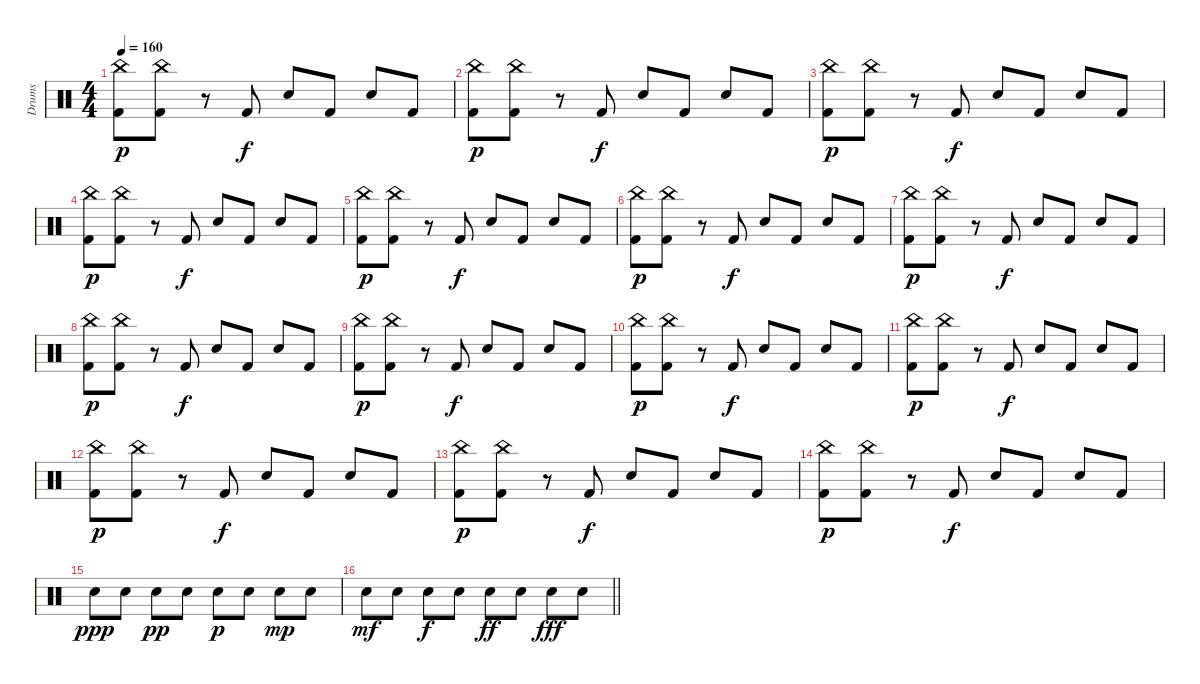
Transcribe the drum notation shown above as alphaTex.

\track ("Drums" "Drums") {instrument percussion}
\staff {score}
\articulation defaults
\ts (4 4)
\tempo 160
\clef neutral
\ks c
("China (hit)" "Kick (hit) 2").8{dy p} ("China (hit)" "Kick (hit) 2").8 r.8 "Kick (hit) 2".8{dy f} "Snare (hit) 2".8 "Kick (hit) 2".8 "Snare (hit) 2".8 "Kick (hit) 2".8 |
("China (hit)" "Kick (hit) 2").8{dy p} ("China (hit)" "Kick (hit) 2").8 r.8 "Kick (hit) 2".8{dy f} "Snare (hit) 2".8 "Kick (hit) 2".8 "Snare (hit) 2".8 "Kick (hit) 2".8 |
("China (hit)" "Kick (hit) 2").8{dy p} ("China (hit)" "Kick (hit) 2").8 r.8 "Kick (hit) 2".8{dy f} "Snare (hit) 2".8 "Kick (hit) 2".8 "Snare (hit) 2".8 "Kick (hit) 2".8 |
("China (hit)" "Kick (hit) 2").8{dy p} ("China (hit)" "Kick (hit) 2").8 r.8 "Kick (hit) 2".8{dy f} "Snare (hit) 2".8 "Kick (hit) 2".8 "Snare (hit) 2".8 "Kick (hit) 2".8 |
("China (hit)" "Kick (hit) 2").8{dy p} ("China (hit)" "Kick (hit) 2").8 r.8 "Kick (hit) 2".8{dy f} "Snare (hit) 2".8 "Kick (hit) 2".8 "Snare (hit) 2".8 "Kick (hit) 2".8 |
("China (hit)" "Kick (hit) 2").8{dy p} ("China (hit)" "Kick (hit) 2").8 r.8 "Kick (hit) 2".8{dy f} "Snare (hit) 2".8 "Kick (hit) 2".8 "Snare (hit) 2".8 "Kick (hit) 2".8 |
("China (hit)" "Kick (hit) 2").8{dy p} ("China (hit)" "Kick (hit) 2").8 r.8 "Kick (hit) 2".8{dy f} "Snare (hit) 2".8 "Kick (hit) 2".8 "Snare (hit) 2".8 "Kick (hit) 2".8 |
("China (hit)" "Kick (hit) 2").8{dy p} ("China (hit)" "Kick (hit) 2").8 r.8 "Kick (hit) 2".8{dy f} "Snare (hit) 2".8 "Kick (hit) 2".8 "Snare (hit) 2".8 "Kick (hit) 2".8 |
("China (hit)" "Kick (hit) 2").8{dy p} ("China (hit)" "Kick (hit) 2").8 r.8 "Kick (hit) 2".8{dy f} "Snare (hit) 2".8 "Kick (hit) 2".8 "Snare (hit) 2".8 "Kick (hit) 2".8 |
("China (hit)" "Kick (hit) 2").8{dy p} ("China (hit)" "Kick (hit) 2").8 r.8 "Kick (hit) 2".8{dy f} "Snare (hit) 2".8 "Kick (hit) 2".8 "Snare (hit) 2".8 "Kick (hit) 2".8 |
("China (hit)" "Kick (hit) 2").8{dy p} ("China (hit)" "Kick (hit) 2").8 r.8 "Kick (hit) 2".8{dy f} "Snare (hit) 2".8 "Kick (hit) 2".8 "Snare (hit) 2".8 "Kick (hit) 2".8 |
("China (hit)" "Kick (hit) 2").8{dy p} ("China (hit)" "Kick (hit) 2").8 r.8 "Kick (hit) 2".8{dy f} "Snare (hit) 2".8 "Kick (hit) 2".8 "Snare (hit) 2".8 "Kick (hit) 2".8 |
("China (hit)" "Kick (hit) 2").8{dy p} ("China (hit)" "Kick (hit) 2").8 r.8 "Kick (hit) 2".8{dy f} "Snare (hit) 2".8 "Kick (hit) 2".8 "Snare (hit) 2".8 "Kick (hit) 2".8 |
("China (hit)" "Kick (hit) 2").8{dy p} ("China (hit)" "Kick (hit) 2").8 r.8 "Kick (hit) 2".8{dy f} "Snare (hit) 2".8 "Kick (hit) 2".8 "Snare (hit) 2".8 "Kick (hit) 2".8 |
"Snare (hit) 2".8{dy ppp} "Snare (hit) 2".8 "Snare (hit) 2".8{dy pp} "Snare (hit) 2".8 "Snare (hit) 2".8{dy p} "Snare (hit) 2".8 "Snare (hit) 2".8{dy mp} "Snare (hit) 2".8 |
\barLineRight lightlight "Snare (hit) 2".8{dy mf} "Snare (hit) 2".8 "Snare (hit) 2".8{dy f} "Snare (hit) 2".8 "Snare (hit) 2".8{dy ff} "Snare (hit) 2".8 "Snare (hit) 2".8{dy fff} "Snare (hit) 2".8
